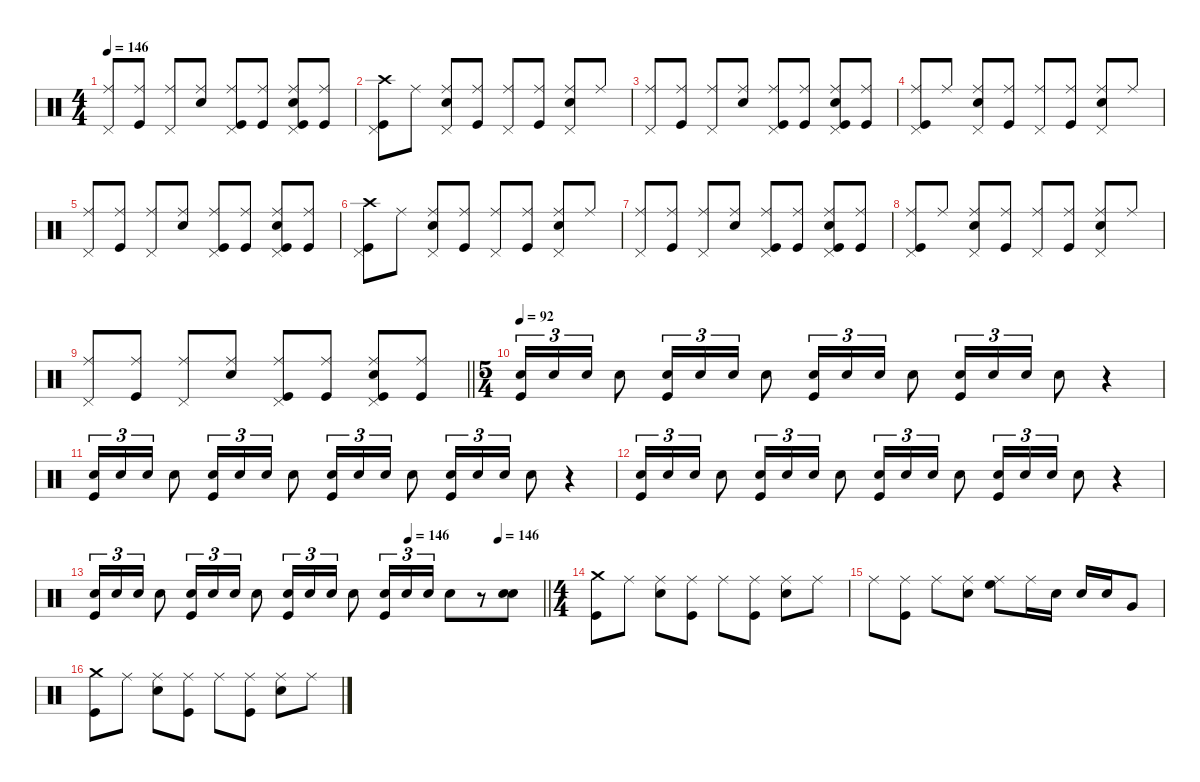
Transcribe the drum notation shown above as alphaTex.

\defaultSystemsLayout 4
\hideDynamics
\bracketExtendMode nobrackets
\singleTrackTrackNamePolicy hidden
\multiTrackTrackNamePolicy hidden
\firstSystemTrackNameMode fullname
\firstSystemTrackNameOrientation horizontal
\otherSystemsTrackNameOrientation horizontal
\track ("Drums" "drm.") {instrument percussion}
\staff {score}
\articulation defaults
\ts (4 4)
\tempo 146
\clef neutral
\ks c
("Ride (middle)" "Pedal Hi-Hat (hit)").8{dy f beam Up} ("Ride (middle)" "Kick (hit)").8{beam Up} ("Ride (middle)" "Pedal Hi-Hat (hit)").8{beam Up} ("Ride (middle)" "Snare (hit) 2").8{beam Up} ("Ride (middle)" "Pedal Hi-Hat (hit)" "Kick (hit)").8{beam Up} ("Ride (middle)" "Kick (hit)").8{beam Up} ("Ride (middle)" "Pedal Hi-Hat (hit)" "Snare (hit) 2" "Kick (hit)").8{beam Up} ("Ride (middle)" "Kick (hit)").8{beam Up} |
("Crash high (hit)" "Pedal Hi-Hat (hit)" "Kick (hit)").8{beam Down} "Ride (middle)".8{beam Down} ("Ride (middle)" "Pedal Hi-Hat (hit)" "Snare (hit) 2").8{beam Up} ("Ride (middle)" "Kick (hit)").8{beam Up} ("Ride (middle)" "Pedal Hi-Hat (hit)").8{beam Up} ("Ride (middle)" "Kick (hit)").8{beam Up} ("Ride (middle)" "Pedal Hi-Hat (hit)" "Snare (hit) 2").8{beam Up} "Ride (middle)".8{beam Up} |
("Ride (middle)" "Pedal Hi-Hat (hit)").8{beam Up} ("Ride (middle)" "Kick (hit)").8{beam Up} ("Ride (middle)" "Pedal Hi-Hat (hit)").8{beam Up} ("Ride (middle)" "Snare (hit) 2").8{beam Up} ("Ride (middle)" "Pedal Hi-Hat (hit)" "Kick (hit)").8{beam Up} ("Ride (middle)" "Kick (hit)").8{beam Up} ("Ride (middle)" "Pedal Hi-Hat (hit)" "Snare (hit) 2" "Kick (hit)").8{beam Up} ("Ride (middle)" "Kick (hit)").8{beam Up} |
("Ride (middle)" "Pedal Hi-Hat (hit)" "Kick (hit)").8{beam Up} "Ride (middle)".8{beam Up} ("Ride (middle)" "Pedal Hi-Hat (hit)" "Snare (hit) 2").8{beam Up} ("Ride (middle)" "Kick (hit)").8{beam Up} ("Ride (middle)" "Pedal Hi-Hat (hit)").8{beam Up} ("Ride (middle)" "Kick (hit)").8{beam Up} ("Ride (middle)" "Pedal Hi-Hat (hit)" "Snare (hit) 2").8{beam Up} "Ride (middle)".8{beam Up} |
("Ride (middle)" "Pedal Hi-Hat (hit)").8{beam Up} ("Ride (middle)" "Kick (hit)").8{beam Up} ("Ride (middle)" "Pedal Hi-Hat (hit)").8{beam Up} ("Ride (middle)" "Snare (hit) 2").8{beam Up} ("Ride (middle)" "Pedal Hi-Hat (hit)" "Kick (hit)").8{beam Up} ("Ride (middle)" "Kick (hit)").8{beam Up} ("Ride (middle)" "Pedal Hi-Hat (hit)" "Snare (hit) 2" "Kick (hit)").8{beam Up} ("Ride (middle)" "Kick (hit)").8{beam Up} |
("Crash high (hit)" "Pedal Hi-Hat (hit)" "Kick (hit)").8{beam Down} "Ride (middle)".8{beam Down} ("Ride (middle)" "Pedal Hi-Hat (hit)" "Snare (hit) 2").8{beam Up} ("Ride (middle)" "Kick (hit)").8{beam Up} ("Ride (middle)" "Pedal Hi-Hat (hit)").8{beam Up} ("Ride (middle)" "Kick (hit)").8{beam Up} ("Ride (middle)" "Pedal Hi-Hat (hit)" "Snare (hit) 2").8{beam Up} "Ride (middle)".8{beam Up} |
("Ride (middle)" "Pedal Hi-Hat (hit)").8{beam Up} ("Ride (middle)" "Kick (hit)").8{beam Up} ("Ride (middle)" "Pedal Hi-Hat (hit)").8{beam Up} ("Ride (middle)" "Snare (hit) 2").8{beam Up} ("Ride (middle)" "Pedal Hi-Hat (hit)" "Kick (hit)").8{beam Up} ("Ride (middle)" "Kick (hit)").8{beam Up} ("Ride (middle)" "Pedal Hi-Hat (hit)" "Snare (hit) 2" "Kick (hit)").8{beam Up} ("Ride (middle)" "Kick (hit)").8{beam Up} |
("Ride (middle)" "Pedal Hi-Hat (hit)" "Kick (hit)").8{beam Up} "Ride (middle)".8{beam Up} ("Ride (middle)" "Pedal Hi-Hat (hit)" "Snare (hit) 2").8{beam Up} ("Ride (middle)" "Kick (hit)").8{beam Up} ("Ride (middle)" "Pedal Hi-Hat (hit)").8{beam Up} ("Ride (middle)" "Kick (hit)").8{beam Up} ("Ride (middle)" "Pedal Hi-Hat (hit)" "Snare (hit) 2").8{beam Up} "Ride (middle)".8{beam Up} |
\barLineRight lightlight
("Ride (middle)" "Pedal Hi-Hat (hit)").8{beam Up} ("Ride (middle)" "Kick (hit)").8{beam Up} ("Ride (middle)" "Pedal Hi-Hat (hit)").8{beam Up} ("Ride (middle)" "Snare (hit) 2").8{beam Up} ("Ride (middle)" "Pedal Hi-Hat (hit)" "Kick (hit)").8{beam Up} ("Ride (middle)" "Kick (hit)").8{beam Up} ("Ride (middle)" "Pedal Hi-Hat (hit)" "Snare (hit) 2" "Kick (hit)").8{beam Up} ("Ride (middle)" "Kick (hit)").8{beam Up} |
\ts (5 4)
\beaming (8 6 4)
\tempo 92
("Snare (hit) 2" "Kick (hit)").16{tu (3 2) beam Up} "Snare (hit) 2".16{tu (3 2) beam Up} "Snare (hit) 2".16{tu (3 2) beam Up} "Snare (hit) 2".8{beam Down} ("Snare (hit) 2" "Kick (hit)").16{tu (3 2) beam Up} "Snare (hit) 2".16{tu (3 2) beam Up} "Snare (hit) 2".16{tu (3 2) beam Up} "Snare (hit) 2".8{beam Down} ("Snare (hit) 2" "Kick (hit)").16{tu (3 2) beam Up} "Snare (hit) 2".16{tu (3 2) beam Up} "Snare (hit) 2".16{tu (3 2) beam Up} "Snare (hit) 2".8{beam Down} ("Snare (hit) 2" "Kick (hit)").16{tu (3 2) beam Up} "Snare (hit) 2".16{tu (3 2) beam Up} "Snare (hit) 2".16{tu (3 2) beam Up} "Snare (hit) 2".8{beam Down} r.4{beam Down} |
("Snare (hit) 2" "Kick (hit)").16{tu (3 2) beam Up} "Snare (hit) 2".16{tu (3 2) beam Up} "Snare (hit) 2".16{tu (3 2) beam Up} "Snare (hit) 2".8{beam Down} ("Snare (hit) 2" "Kick (hit)").16{tu (3 2) beam Up} "Snare (hit) 2".16{tu (3 2) beam Up} "Snare (hit) 2".16{tu (3 2) beam Up} "Snare (hit) 2".8{beam Down} ("Snare (hit) 2" "Kick (hit)").16{tu (3 2) beam Up} "Snare (hit) 2".16{tu (3 2) beam Up} "Snare (hit) 2".16{tu (3 2) beam Up} "Snare (hit) 2".8{beam Down} ("Snare (hit) 2" "Kick (hit)").16{tu (3 2) beam Up} "Snare (hit) 2".16{tu (3 2) beam Up} "Snare (hit) 2".16{tu (3 2) beam Up} "Snare (hit) 2".8{beam Down} r.4{beam Down} |
("Snare (hit) 2" "Kick (hit)").16{tu (3 2) beam Up} "Snare (hit) 2".16{tu (3 2) beam Up} "Snare (hit) 2".16{tu (3 2) beam Up} "Snare (hit) 2".8{beam Down} ("Snare (hit) 2" "Kick (hit)").16{tu (3 2) beam Up} "Snare (hit) 2".16{tu (3 2) beam Up} "Snare (hit) 2".16{tu (3 2) beam Up} "Snare (hit) 2".8{beam Down} ("Snare (hit) 2" "Kick (hit)").16{tu (3 2) beam Up} "Snare (hit) 2".16{tu (3 2) beam Up} "Snare (hit) 2".16{tu (3 2) beam Up} "Snare (hit) 2".8{beam Down} ("Snare (hit) 2" "Kick (hit)").16{tu (3 2) beam Up} "Snare (hit) 2".16{tu (3 2) beam Up} "Snare (hit) 2".16{tu (3 2) beam Up} "Snare (hit) 2".8{beam Down} r.4{beam Down} |
\tempo (146 0.7)
\tempo (146 0.9)
\barLineRight lightlight
("Snare (hit) 2" "Kick (hit)").16{tu (3 2) beam Up} "Snare (hit) 2".16{tu (3 2) beam Up} "Snare (hit) 2".16{tu (3 2) beam Up} "Snare (hit) 2".8{beam Down} ("Snare (hit) 2" "Kick (hit)").16{tu (3 2) beam Up} "Snare (hit) 2".16{tu (3 2) beam Up} "Snare (hit) 2".16{tu (3 2) beam Up} "Snare (hit) 2".8{beam Down} ("Snare (hit) 2" "Kick (hit)").16{tu (3 2) beam Up} "Snare (hit) 2".16{tu (3 2) beam Up} "Snare (hit) 2".16{tu (3 2) beam Up} "Snare (hit) 2".8{beam Down} ("Snare (hit) 2" "Kick (hit)").16{tu (3 2) beam Up} "Snare (hit) 2".16{tu (3 2) beam Up} "Snare (hit) 2".16{tu (3 2) beam Up} "Snare (hit) 2".8{beam Down} r.8{beam Down} ("Snare (hit) 2" "Snare (hit) 2").8{beam Down} |
\ts (4 4)
\beaming (8 2 2 2 2)
("Crash medium (hit)" "Kick (hit)").8{beam Down} "Ride (middle)".8{beam Down} ("Ride (middle)" "Snare (hit) 2").8{beam Down} ("Ride (middle)" "Kick (hit)").8{beam Down} "Ride (middle)".8{beam Down} ("Ride (middle)" "Kick (hit)").8{beam Down} ("Ride (middle)" "Snare (hit) 2").8{beam Down} "Ride (middle)".8{beam Down} |
"Ride (middle)".8{beam Down} ("Ride (middle)" "Kick (hit)").8{beam Down} "Ride (middle)".8{beam Down} ("Ride (middle)" "Snare (hit) 2").8{beam Down} ("Ride (middle)" "High Floor Tom (hit)").8{beam Down} "Ride (middle)".16{beam Down} "Snare (hit) 2".16{beam Down} "Snare (hit) 2".16{beam Up} "Snare (hit) 2".16{beam Up} "Very Low Tom (hit)".8{beam Up} |
("Crash medium (hit)" "Kick (hit)").8{beam Down} "Ride (middle)".8{beam Down} ("Ride (middle)" "Snare (hit) 2").8{beam Down} ("Ride (middle)" "Kick (hit)").8{beam Down} "Ride (middle)".8{beam Down} ("Ride (middle)" "Kick (hit)").8{beam Down} ("Ride (middle)" "Snare (hit) 2").8{beam Down} "Ride (middle)".8{beam Down}
